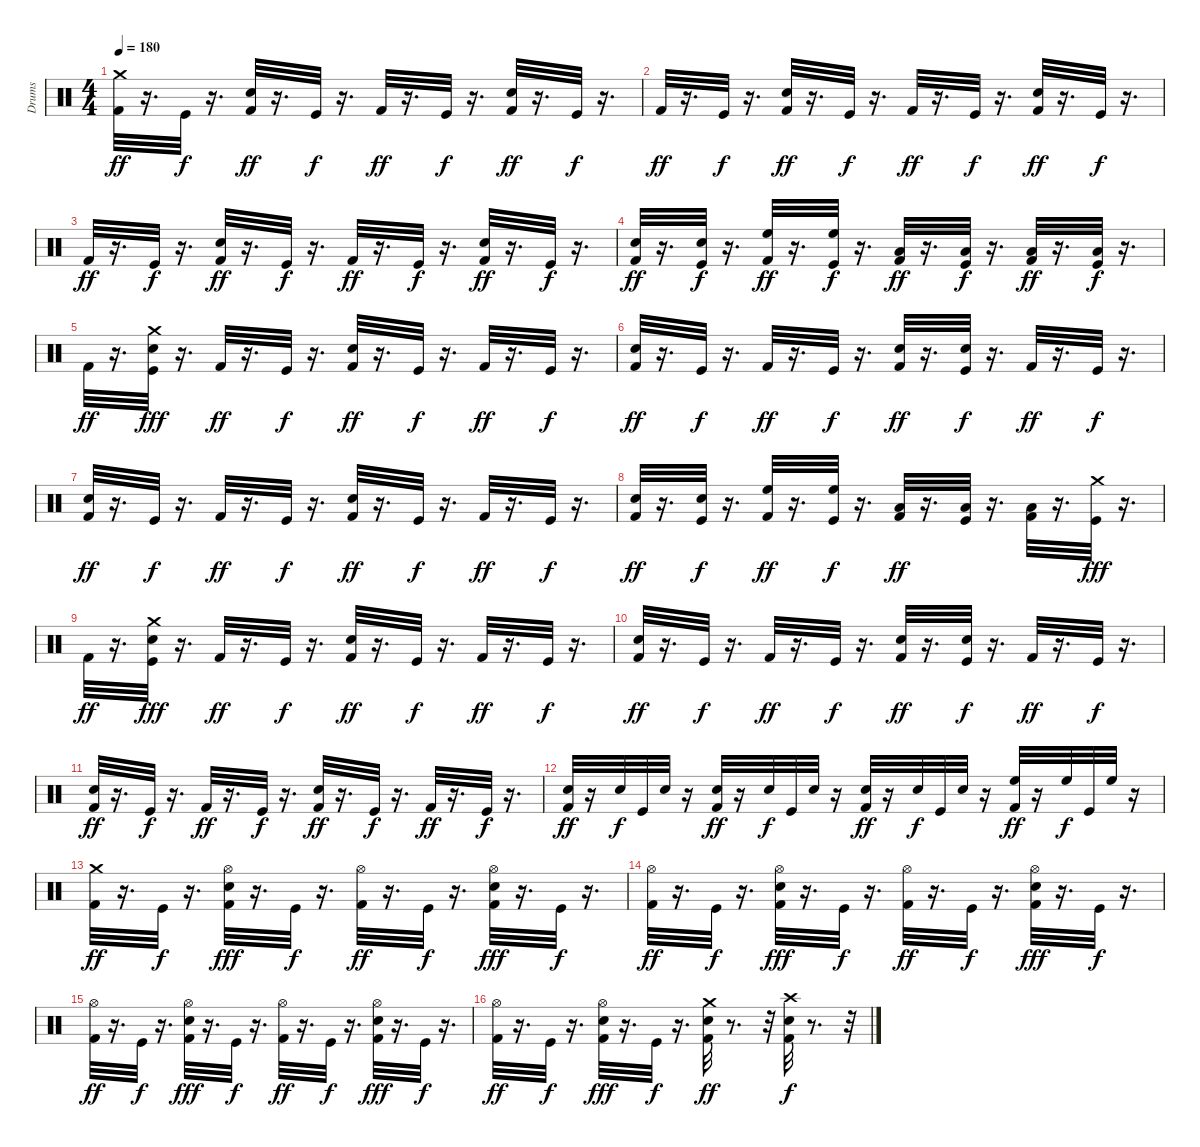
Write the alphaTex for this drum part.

\track ("Drums" "Drums") {instrument percussion}
\staff {score}
\articulation defaults
\ts (4 4)
\tempo 180
\clef neutral
\ks c
("Crash medium (hit)" "Kick (hit) 2").32{dy ff} r.16{d} "Kick (hit)".32{dy f} r.16{d} ("Snare (hit) 2" "Kick (hit) 2").32{dy ff} r.16{d} "Kick (hit)".32{dy f} r.16{d} "Kick (hit) 2".32{dy ff} r.16{d} "Kick (hit)".32{dy f} r.16{d} ("Snare (hit) 2" "Kick (hit) 2").32{dy ff} r.16{d} "Kick (hit)".32{dy f} r.16{d} |
"Kick (hit) 2".32{dy ff} r.16{d} "Kick (hit)".32{dy f} r.16{d} ("Snare (hit) 2" "Kick (hit) 2").32{dy ff} r.16{d} "Kick (hit)".32{dy f} r.16{d} "Kick (hit) 2".32{dy ff} r.16{d} "Kick (hit)".32{dy f} r.16{d} ("Snare (hit) 2" "Kick (hit) 2").32{dy ff} r.16{d} "Kick (hit)".32{dy f} r.16{d} |
"Kick (hit) 2".32{dy ff} r.16{d} "Kick (hit)".32{dy f} r.16{d} ("Snare (hit) 2" "Kick (hit) 2").32{dy ff} r.16{d} "Kick (hit)".32{dy f} r.16{d} "Kick (hit) 2".32{dy ff} r.16{d} "Kick (hit)".32{dy f} r.16{d} ("Snare (hit) 2" "Kick (hit) 2").32{dy ff} r.16{d} "Kick (hit)".32{dy f} r.16{d} |
("Snare (hit) 2" "Kick (hit) 2").32{dy ff} r.16{d} ("Snare (hit) 2" "Kick (hit)").32{dy f} r.16{d} ("High Floor Tom (hit)" "Kick (hit) 2").32{dy ff} r.16{d} ("High Floor Tom (hit)" "Kick (hit)").32{dy f} r.16{d} ("Low Tom (hit)" "Kick (hit) 2").32{dy ff} r.16{d} ("Low Tom (hit)" "Kick (hit)").32{dy f} r.16{d} ("Low Floor Tom (hit)" "Kick (hit) 2").32{dy ff} r.16{d} ("Low Floor Tom (hit)" "Kick (hit)").32{dy f} r.16{d} |
"Kick (hit) 2".32{dy ff} r.16{d} ("Crash medium (hit)" "Snare (hit) 2" "Kick (hit)").32{dy fff} r.16{d} "Kick (hit) 2".32{dy ff} r.16{d} "Kick (hit)".32{dy f} r.16{d} ("Snare (hit) 2" "Kick (hit) 2").32{dy ff} r.16{d} "Kick (hit)".32{dy f} r.16{d} "Kick (hit) 2".32{dy ff} r.16{d} "Kick (hit)".32{dy f} r.16{d} |
("Snare (hit) 2" "Kick (hit) 2").32{dy ff} r.16{d} "Kick (hit)".32{dy f} r.16{d} "Kick (hit) 2".32{dy ff} r.16{d} "Kick (hit)".32{dy f} r.16{d} ("Snare (hit) 2" "Kick (hit) 2").32{dy ff} r.16{d} ("Snare (hit) 2" "Kick (hit)").32{dy f} r.16{d} "Kick (hit) 2".32{dy ff} r.16{d} "Kick (hit)".32{dy f} r.16{d} |
("Snare (hit) 2" "Kick (hit) 2").32{dy ff} r.16{d} "Kick (hit)".32{dy f} r.16{d} "Kick (hit) 2".32{dy ff} r.16{d} "Kick (hit)".32{dy f} r.16{d} ("Snare (hit) 2" "Kick (hit) 2").32{dy ff} r.16{d} "Kick (hit)".32{dy f} r.16{d} "Kick (hit) 2".32{dy ff} r.16{d} "Kick (hit)".32{dy f} r.16{d} |
("Snare (hit) 2" "Kick (hit) 2").32{dy ff} r.16{d} ("Snare (hit) 2" "Kick (hit)").32{dy f} r.16{d} ("High Floor Tom (hit)" "Kick (hit) 2").32{dy ff} r.16{d} ("High Floor Tom (hit)" "Kick (hit)").32{dy f} r.16{d} ("Low Floor Tom (hit)" "Kick (hit) 2").32{dy ff} r.16{d} ("Low Floor Tom (hit)" "Kick (hit)").32 r.16{d} ("Low Floor Tom (hit)" "Kick (hit) 2").32 r.16{d} ("Crash medium (hit)" "Kick (hit)").32{dy fff} r.16{d} |
"Kick (hit) 2".32{dy ff} r.16{d} ("Crash medium (hit)" "Snare (hit) 2" "Kick (hit)").32{dy fff} r.16{d} "Kick (hit) 2".32{dy ff} r.16{d} "Kick (hit)".32{dy f} r.16{d} ("Snare (hit) 2" "Kick (hit) 2").32{dy ff} r.16{d} "Kick (hit)".32{dy f} r.16{d} "Kick (hit) 2".32{dy ff} r.16{d} "Kick (hit)".32{dy f} r.16{d} |
("Snare (hit) 2" "Kick (hit) 2").32{dy ff} r.16{d} "Kick (hit)".32{dy f} r.16{d} "Kick (hit) 2".32{dy ff} r.16{d} "Kick (hit)".32{dy f} r.16{d} ("Snare (hit) 2" "Kick (hit) 2").32{dy ff} r.16{d} ("Snare (hit) 2" "Kick (hit)").32{dy f} r.16{d} "Kick (hit) 2".32{dy ff} r.16{d} "Kick (hit)".32{dy f} r.16{d} |
("Snare (hit) 2" "Kick (hit) 2").32{dy ff} r.16{d} "Kick (hit)".32{dy f} r.16{d} "Kick (hit) 2".32{dy ff} r.16{d} "Kick (hit)".32{dy f} r.16{d} ("Snare (hit) 2" "Kick (hit) 2").32{dy ff} r.16{d} "Kick (hit)".32{dy f} r.16{d} "Kick (hit) 2".32{dy ff} r.16{d} "Kick (hit)".32{dy f} r.16{d} |
("Snare (hit) 2" "Kick (hit) 2").32{dy ff} r.16 "Snare (hit) 2".32{dy f} "Kick (hit)".32 "Snare (hit) 2".32 r.16 ("Snare (hit) 2" "Kick (hit) 2").32{dy ff} r.16 "Snare (hit) 2".32{dy f} "Kick (hit)".32 "Snare (hit) 2".32 r.16 ("Snare (hit) 2" "Kick (hit) 2").32{dy ff} r.16 "Snare (hit) 2".32{dy f} "Kick (hit)".32 "Snare (hit) 2".32 r.16 ("High Floor Tom (hit)" "Kick (hit) 2").32{dy ff} r.16 "High Floor Tom (hit)".32{dy f} "Kick (hit)".32 "High Floor Tom (hit)".32 r.16 |
("Crash medium (hit)" "Kick (hit) 2").32{dy ff} r.16{d} "Kick (hit)".32{dy f} r.16{d} ("Kick (hit) 2" "Snare (hit) 2" "Hi-Hat (open)").32{dy fff} r.16{d} "Kick (hit)".32{dy f} r.16{d} ("Kick (hit) 2" "Hi-Hat (open)").32{dy ff} r.16{d} "Kick (hit)".32{dy f} r.16{d} ("Kick (hit) 2" "Snare (hit) 2" "Hi-Hat (open)").32{dy fff} r.16{d} "Kick (hit)".32{dy f} r.16{d} |
("Kick (hit) 2" "Hi-Hat (open)").32{dy ff} r.16{d} "Kick (hit)".32{dy f} r.16{d} ("Kick (hit) 2" "Snare (hit) 2" "Hi-Hat (open)").32{dy fff} r.16{d} "Kick (hit)".32{dy f} r.16{d} ("Kick (hit) 2" "Hi-Hat (open)").32{dy ff} r.16{d} "Kick (hit)".32{dy f} r.16{d} ("Kick (hit) 2" "Snare (hit) 2" "Hi-Hat (open)").32{dy fff} r.16{d} "Kick (hit)".32{dy f} r.16{d} |
("Kick (hit) 2" "Hi-Hat (open)").32{dy ff} r.16{d} "Kick (hit)".32{dy f} r.16{d} ("Kick (hit) 2" "Snare (hit) 2" "Hi-Hat (open)").32{dy fff} r.16{d} "Kick (hit)".32{dy f} r.16{d} ("Kick (hit) 2" "Hi-Hat (open)").32{dy ff} r.16{d} "Kick (hit)".32{dy f} r.16{d} ("Kick (hit) 2" "Snare (hit) 2" "Hi-Hat (open)").32{dy fff} r.16{d} "Kick (hit)".32{dy f} r.16{d} |
("Kick (hit) 2" "Hi-Hat (open)").32{dy ff} r.16{d} "Kick (hit)".32{dy f} r.16{d} ("Kick (hit) 2" "Snare (hit) 2" "Hi-Hat (open)").32{dy fff} r.16{d} "Kick (hit)".32{dy f} r.16{d} ("Crash medium (hit)" "Snare (hit) 2" "Kick (hit) 2").32{dy ff} r.8{d} r.32 ("Crash high (hit)" "Snare (hit) 2" "Kick (hit) 2").32{dy f} r.8{d} r.32
